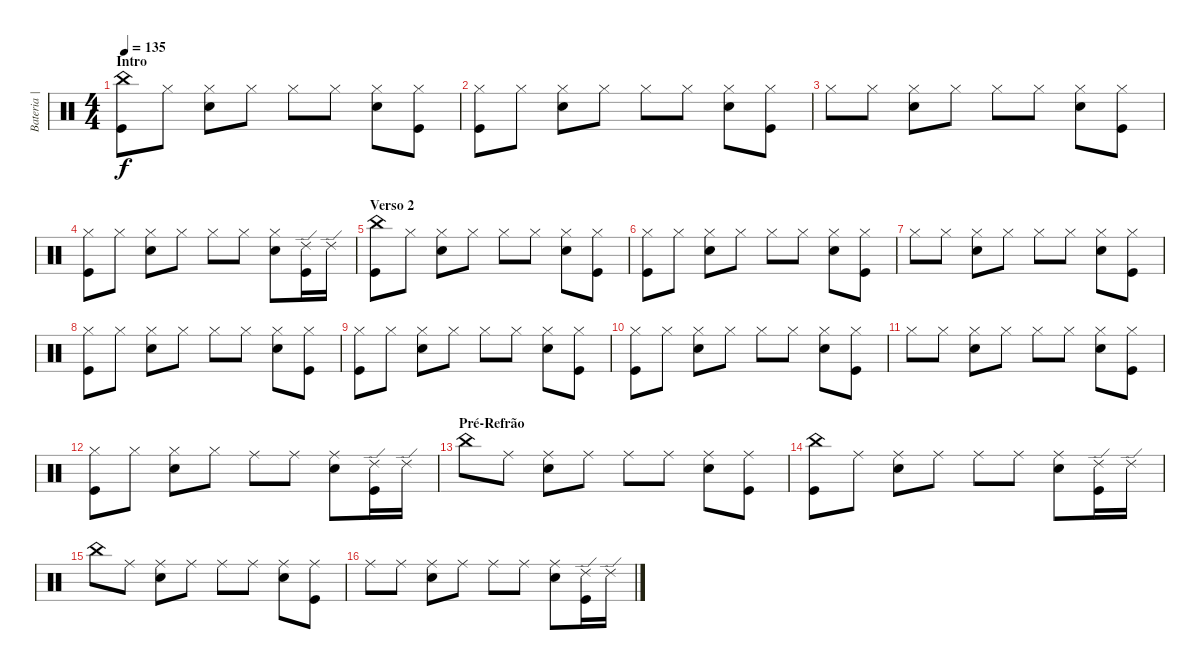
\track ("Bateria | Bernardo" "Bateria | ") {instrument percussion}
\staff {score}
\articulation defaults
\ts (4 4)
\section ("" "Intro")
\tempo 135
\clef neutral
\ks c
("China (hit)" "Kick (hit)").8{dy f} "Hi-Hat (closed)".8 ("Hi-Hat (closed)" "Snare (hit) 2").8 "Hi-Hat (closed)".8 "Hi-Hat (closed)".8 "Hi-Hat (closed)".8 ("Hi-Hat (closed)" "Snare (hit) 2").8 ("Hi-Hat (closed)" "Kick (hit)").8 |
("Hi-Hat (closed)" "Kick (hit)").8 "Hi-Hat (closed)".8 ("Hi-Hat (closed)" "Snare (hit) 2").8 "Hi-Hat (closed)".8 "Hi-Hat (closed)".8 "Hi-Hat (closed)".8 ("Hi-Hat (closed)" "Snare (hit) 2").8 ("Hi-Hat (closed)" "Kick (hit)").8 |
"Hi-Hat (closed)".8 "Hi-Hat (closed)".8 ("Hi-Hat (closed)" "Snare (hit) 2").8 "Hi-Hat (closed)".8 "Hi-Hat (closed)".8 "Hi-Hat (closed)".8 ("Hi-Hat (closed)" "Snare (hit) 2").8 ("Hi-Hat (closed)" "Kick (hit)").8 |
("Hi-Hat (closed)" "Kick (hit)").8 "Hi-Hat (closed)".8 ("Hi-Hat (closed)" "Snare (hit) 2").8 "Hi-Hat (closed)".8 "Hi-Hat (closed)".8 "Hi-Hat (closed)".8 ("Hi-Hat (closed)" "Snare (hit) 2").8 ("Ride (edge) 2" "Kick (hit)").16 "Ride (edge) 2".16 |
\section ("" "Verso 2")
("China (hit)" "Kick (hit)").8 "Hi-Hat (closed)".8 ("Hi-Hat (closed)" "Snare (hit) 2").8 "Hi-Hat (closed)".8 "Hi-Hat (closed)".8 "Hi-Hat (closed)".8 ("Hi-Hat (closed)" "Snare (hit) 2").8 ("Hi-Hat (closed)" "Kick (hit)").8 |
("Hi-Hat (closed)" "Kick (hit)").8 "Hi-Hat (closed)".8 ("Hi-Hat (closed)" "Snare (hit) 2").8 "Hi-Hat (closed)".8 "Hi-Hat (closed)".8 "Hi-Hat (closed)".8 ("Hi-Hat (closed)" "Snare (hit) 2").8 ("Hi-Hat (closed)" "Kick (hit)").8 |
"Hi-Hat (closed)".8 "Hi-Hat (closed)".8 ("Hi-Hat (closed)" "Snare (hit) 2").8 "Hi-Hat (closed)".8 "Hi-Hat (closed)".8 "Hi-Hat (closed)".8 ("Hi-Hat (closed)" "Snare (hit) 2").8 ("Hi-Hat (closed)" "Kick (hit)").8 |
("Hi-Hat (closed)" "Kick (hit)").8 "Hi-Hat (closed)".8 ("Hi-Hat (closed)" "Snare (hit) 2").8 "Hi-Hat (closed)".8 "Hi-Hat (closed)".8 "Hi-Hat (closed)".8 ("Hi-Hat (closed)" "Snare (hit) 2").8 ("Hi-Hat (closed)" "Kick (hit)").8 |
("Hi-Hat (closed)" "Kick (hit)").8 "Hi-Hat (closed)".8 ("Hi-Hat (closed)" "Snare (hit) 2").8 "Hi-Hat (closed)".8 "Hi-Hat (closed)".8 "Hi-Hat (closed)".8 ("Hi-Hat (closed)" "Snare (hit) 2").8 ("Hi-Hat (closed)" "Kick (hit)").8 |
("Hi-Hat (closed)" "Kick (hit)").8 "Hi-Hat (closed)".8 ("Hi-Hat (closed)" "Snare (hit) 2").8 "Hi-Hat (closed)".8 "Hi-Hat (closed)".8 "Hi-Hat (closed)".8 ("Hi-Hat (closed)" "Snare (hit) 2").8 ("Hi-Hat (closed)" "Kick (hit)").8 |
"Hi-Hat (closed)".8 "Hi-Hat (closed)".8 ("Hi-Hat (closed)" "Snare (hit) 2").8 "Hi-Hat (closed)".8 "Hi-Hat (closed)".8 "Hi-Hat (closed)".8 ("Hi-Hat (closed)" "Snare (hit) 2").8 ("Hi-Hat (closed)" "Kick (hit)").8 |
("Hi-Hat (closed)" "Kick (hit)").8 "Hi-Hat (closed)".8 ("Hi-Hat (closed)" "Snare (hit) 2").8 "Hi-Hat (closed)".8 "Ride (middle)".8 "Ride (middle)".8 ("Ride (middle)" "Snare (hit) 2").8 ("Ride (edge) 2" "Kick (hit)").16 "Ride (edge) 2".16 |
\section ("" "Pré-Refrão")
"China (hit)".8 "Ride (middle)".8 ("Ride (middle)" "Snare (hit) 2").8 "Ride (middle)".8 "Ride (middle)".8 "Ride (middle)".8 ("Ride (middle)" "Snare (hit) 2").8 ("Ride (middle)" "Kick (hit)").8 |
("China (hit)" "Kick (hit)").8 "Ride (middle)".8 ("Ride (middle)" "Snare (hit) 2").8 "Ride (middle)".8 "Ride (middle)".8 "Ride (middle)".8 ("Ride (middle)" "Snare (hit) 2").8 ("Ride (edge) 2" "Kick (hit)").16 "Ride (edge) 2".16 |
"China (hit)".8 "Ride (middle)".8 ("Ride (middle)" "Snare (hit) 2").8 "Ride (middle)".8 "Ride (middle)".8 "Ride (middle)".8 ("Ride (middle)" "Snare (hit) 2").8 ("Ride (middle)" "Kick (hit)").8 |
"Ride (middle)".8 "Ride (middle)".8 ("Ride (middle)" "Snare (hit) 2").8 "Ride (middle)".8 "Ride (middle)".8 "Ride (middle)".8 ("Ride (middle)" "Snare (hit) 2").8 ("Ride (edge) 2" "Kick (hit)").16 "Ride (edge) 2".16
